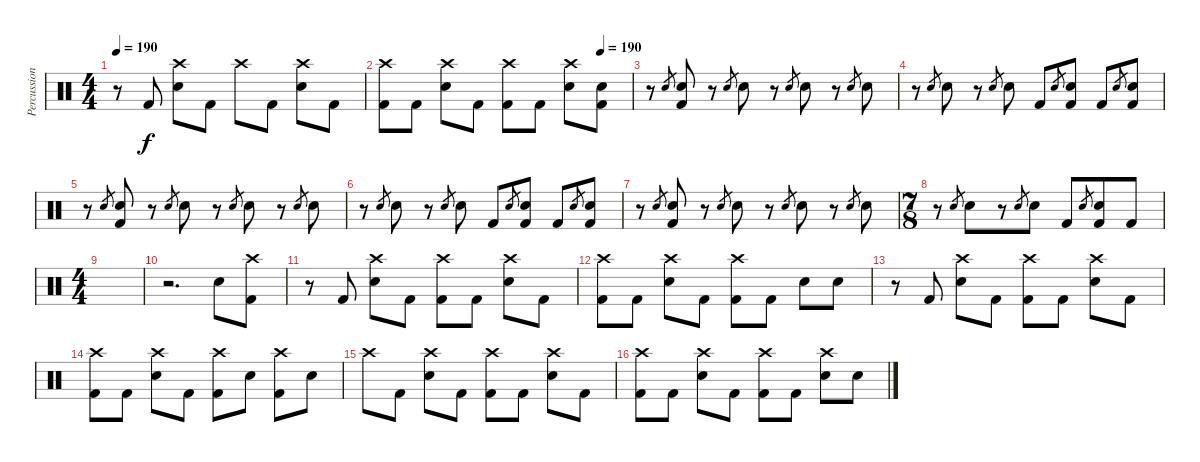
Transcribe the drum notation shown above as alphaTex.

\track ("Percussions" "Percussion") {instrument percussion}
\staff {score}
\articulation defaults
\ts (4 4)
\tempo 190
\clef neutral
\ks c
r.8{dy f} "Kick (hit) 2".8 ("Crash high (hit)" "Electric Snare (hit)").8 "Kick (hit) 2".8 "Crash high (hit)".8 "Kick (hit) 2".8 ("Crash high (hit)" "Electric Snare (hit)").8 "Kick (hit) 2".8 |
\tempo (190 0.875)
("Crash high (hit)" "Kick (hit) 2").8 "Kick (hit) 2".8 ("Crash high (hit)" "Electric Snare (hit)").8 "Kick (hit) 2".8 ("Crash high (hit)" "Kick (hit) 2").8 "Kick (hit) 2".8 ("Crash high (hit)" "Electric Snare (hit)").8 ("Electric Snare (hit)" "Kick (hit) 2").8 |
r.8 "Electric Snare (hit)".8{gr} ("Electric Snare (hit)" "Kick (hit) 2").8 r.8 "Electric Snare (hit)".8{gr} "Electric Snare (hit)".8 r.8 "Electric Snare (hit)".8{gr} "Electric Snare (hit)".8 r.8 "Electric Snare (hit)".8{gr} "Electric Snare (hit)".8 |
r.8 "Electric Snare (hit)".8{gr} "Electric Snare (hit)".8 r.8 "Electric Snare (hit)".8{gr} "Electric Snare (hit)".8 "Kick (hit) 2".8 "Electric Snare (hit)".8{gr} ("Electric Snare (hit)" "Kick (hit) 2").8 "Kick (hit) 2".8 "Electric Snare (hit)".8{gr} ("Electric Snare (hit)" "Kick (hit) 2").8 |
r.8 "Electric Snare (hit)".8{gr} ("Electric Snare (hit)" "Kick (hit) 2").8 r.8 "Electric Snare (hit)".8{gr} "Electric Snare (hit)".8 r.8 "Electric Snare (hit)".8{gr} "Electric Snare (hit)".8 r.8 "Electric Snare (hit)".8{gr} "Electric Snare (hit)".8 |
r.8 "Electric Snare (hit)".8{gr} "Electric Snare (hit)".8 r.8 "Electric Snare (hit)".8{gr} "Electric Snare (hit)".8 "Kick (hit) 2".8 "Electric Snare (hit)".8{gr} ("Electric Snare (hit)" "Kick (hit) 2").8 "Kick (hit) 2".8 "Electric Snare (hit)".8{gr} ("Electric Snare (hit)" "Kick (hit) 2").8 |
r.8 "Electric Snare (hit)".8{gr} ("Electric Snare (hit)" "Kick (hit) 2").8 r.8 "Electric Snare (hit)".8{gr} "Electric Snare (hit)".8 r.8 "Electric Snare (hit)".8{gr} "Electric Snare (hit)".8 r.8 "Electric Snare (hit)".8{gr} "Electric Snare (hit)".8 |
\ts (7 8)
r.8 "Electric Snare (hit)".8{gr} "Electric Snare (hit)".8 r.8 "Electric Snare (hit)".8{gr} "Electric Snare (hit)".8 "Kick (hit) 2".8 "Electric Snare (hit)".8{gr} ("Electric Snare (hit)" "Kick (hit) 2").8 "Kick (hit) 2".8 |
\ts (4 4)
|
r.2{d} "Electric Snare (hit)".8 ("Crash high (hit)" "Kick (hit) 2").8 |
r.8 "Kick (hit) 2".8 ("Crash high (hit)" "Electric Snare (hit)").8 "Kick (hit) 2".8 ("Crash high (hit)" "Kick (hit) 2").8 "Kick (hit) 2".8 ("Crash high (hit)" "Electric Snare (hit)").8 "Kick (hit) 2".8 |
("Crash high (hit)" "Kick (hit) 2").8 "Kick (hit) 2".8 ("Crash high (hit)" "Electric Snare (hit)").8 "Kick (hit) 2".8 ("Crash high (hit)" "Kick (hit) 2").8 "Kick (hit) 2".8 "Electric Snare (hit)".8 "Electric Snare (hit)".8 |
r.8 "Kick (hit) 2".8 ("Crash high (hit)" "Electric Snare (hit)").8 "Kick (hit) 2".8 ("Crash high (hit)" "Kick (hit) 2").8 "Kick (hit) 2".8 ("Crash high (hit)" "Electric Snare (hit)").8 "Kick (hit) 2".8 |
("Crash high (hit)" "Kick (hit) 2").8 "Kick (hit) 2".8 ("Crash high (hit)" "Electric Snare (hit)").8 "Kick (hit) 2".8 ("Crash high (hit)" "Kick (hit) 2").8 "Electric Snare (hit)".8 ("Crash high (hit)" "Kick (hit) 2").8 "Electric Snare (hit)".8 |
"Crash high (hit)".8 "Kick (hit) 2".8 ("Crash high (hit)" "Electric Snare (hit)").8 "Kick (hit) 2".8 ("Crash high (hit)" "Kick (hit) 2").8 "Kick (hit) 2".8 ("Crash high (hit)" "Electric Snare (hit)").8 "Kick (hit) 2".8 |
("Crash high (hit)" "Kick (hit) 2").8 "Kick (hit) 2".8 ("Crash high (hit)" "Electric Snare (hit)").8 "Kick (hit) 2".8 ("Crash high (hit)" "Kick (hit) 2").8 "Kick (hit) 2".8 ("Crash high (hit)" "Electric Snare (hit)").8 "Electric Snare (hit)".8
